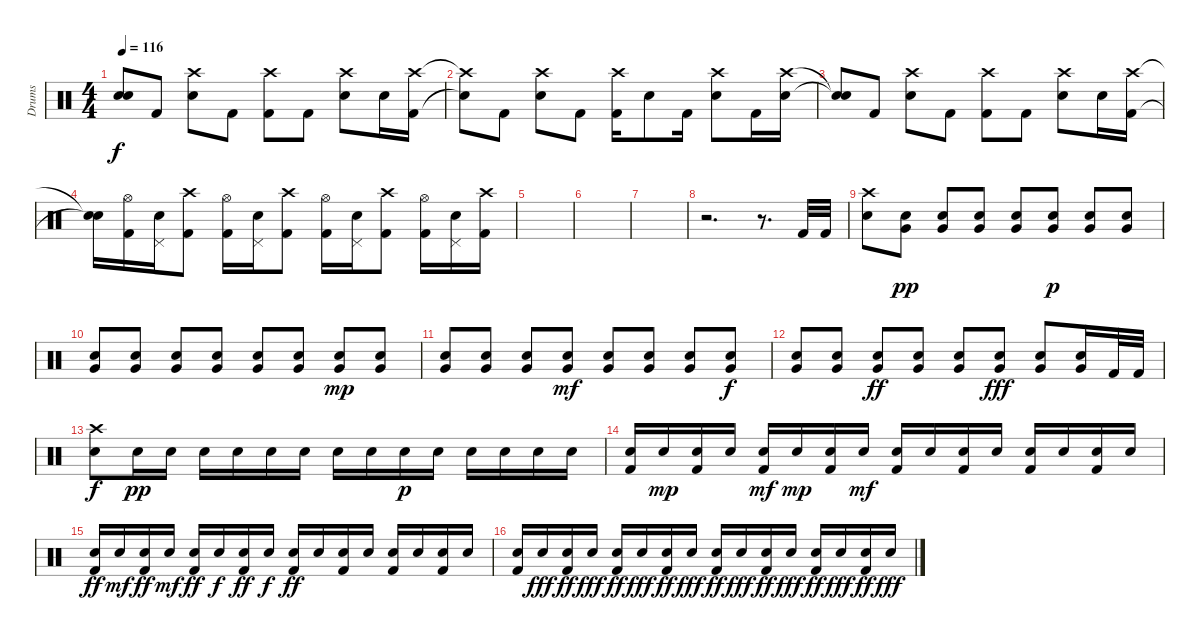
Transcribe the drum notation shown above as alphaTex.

\track ("Drums" "Drums") {instrument percussion}
\staff {score}
\articulation defaults
\ts (4 4)
\tempo 116
\clef neutral
\ks c
("Snare (hit)"{t} "Snare (hit)"{t}).8{dy f} "Kick (hit) 2".8 ("Crash high (hit)" "Electric Snare (hit)").8 "Kick (hit) 2".8 ("Crash high (hit)" "Kick (hit) 2").8 "Kick (hit) 2".8 ("Crash high (hit)" "Electric Snare (hit)").8 "Electric Snare (hit)".16 ("Crash high (hit)" "Kick (hit) 2").16 |
("Crash high (hit)"{t} "Snare (hit)"{t}).8 "Kick (hit) 2".8 ("Crash high (hit)" "Electric Snare (hit)").8 "Kick (hit) 2".8 ("Crash high (hit)" "Kick (hit) 2").16 "Electric Snare (hit)".8 "Kick (hit) 2".16 ("Crash high (hit)" "Electric Snare (hit)").8 "Kick (hit) 2".16 ("Crash high (hit)" "Electric Snare (hit)").16 |
("Snare (hit)"{t} "Snare (hit)"{t}).8 "Kick (hit) 2".8 ("Crash high (hit)" "Electric Snare (hit)").8 "Kick (hit) 2".8 ("Crash high (hit)" "Kick (hit) 2").8 "Kick (hit) 2".8 ("Crash high (hit)" "Electric Snare (hit)").8 "Electric Snare (hit)".16 ("Crash high (hit)" "Kick (hit) 2").16 |
("Snare (hit)"{t} "Snare (hit)"{t}).16 ("Hi-Hat (open)" "Kick (hit) 2").16 ("Pedal Hi-Hat (hit)" "Electric Snare (hit)").16 ("Crash high (hit)" "Kick (hit) 2").8 ("Hi-Hat (open)" "Kick (hit) 2").16 ("Pedal Hi-Hat (hit)" "Electric Snare (hit)").16 ("Crash high (hit)" "Kick (hit) 2").8 ("Hi-Hat (open)" "Kick (hit) 2").16 ("Pedal Hi-Hat (hit)" "Electric Snare (hit)").16 ("Crash high (hit)" "Kick (hit) 2").8 ("Hi-Hat (open)" "Kick (hit) 2").16 ("Pedal Hi-Hat (hit)" "Electric Snare (hit)").16 ("Crash high (hit)" "Kick (hit) 2").16 |
|
|
|
r.2{d} r.8{d} "Kick (hit) 2".32 "Kick (hit) 2".32 |
("Crash high (hit)" "Electric Snare (hit)").8 ("Very Low Tom (hit)" "Electric Snare (hit)").8{dy pp} ("Very Low Tom (hit)" "Electric Snare (hit)").8 ("Very Low Tom (hit)" "Electric Snare (hit)").8 ("Very Low Tom (hit)" "Electric Snare (hit)").8 ("Very Low Tom (hit)" "Electric Snare (hit)").8{dy p} ("Very Low Tom (hit)" "Electric Snare (hit)").8 ("Very Low Tom (hit)" "Electric Snare (hit)").8 |
("Very Low Tom (hit)" "Electric Snare (hit)").8 ("Very Low Tom (hit)" "Electric Snare (hit)").8 ("Very Low Tom (hit)" "Electric Snare (hit)").8 ("Very Low Tom (hit)" "Electric Snare (hit)").8 ("Very Low Tom (hit)" "Electric Snare (hit)").8 ("Very Low Tom (hit)" "Electric Snare (hit)").8 ("Very Low Tom (hit)" "Electric Snare (hit)").8{dy mp} ("Very Low Tom (hit)" "Electric Snare (hit)").8 |
("Very Low Tom (hit)" "Electric Snare (hit)").8 ("Very Low Tom (hit)" "Electric Snare (hit)").8 ("Very Low Tom (hit)" "Electric Snare (hit)").8 ("Very Low Tom (hit)" "Electric Snare (hit)").8{dy mf} ("Very Low Tom (hit)" "Electric Snare (hit)").8 ("Very Low Tom (hit)" "Electric Snare (hit)").8 ("Very Low Tom (hit)" "Electric Snare (hit)").8 ("Very Low Tom (hit)" "Electric Snare (hit)").8{dy f} |
("Very Low Tom (hit)" "Electric Snare (hit)").8 ("Very Low Tom (hit)" "Electric Snare (hit)").8 ("Very Low Tom (hit)" "Electric Snare (hit)").8{dy ff} ("Very Low Tom (hit)" "Electric Snare (hit)").8 ("Very Low Tom (hit)" "Electric Snare (hit)").8 ("Very Low Tom (hit)" "Electric Snare (hit)").8{dy fff} ("Very Low Tom (hit)" "Electric Snare (hit)").8 ("Very Low Tom (hit)" "Electric Snare (hit)").16 "Kick (hit) 2".32 "Kick (hit) 2".32 |
("Crash high (hit)" "Electric Snare (hit)").8{dy f} "Electric Snare (hit)".16{dy pp} "Electric Snare (hit)".16 "Electric Snare (hit)".16 "Electric Snare (hit)".16 "Electric Snare (hit)".16 "Electric Snare (hit)".16 "Electric Snare (hit)".16 "Electric Snare (hit)".16 "Electric Snare (hit)".16{dy p} "Electric Snare (hit)".16 "Electric Snare (hit)".16 "Electric Snare (hit)".16 "Electric Snare (hit)".16 "Electric Snare (hit)".16 |
("Electric Snare (hit)" "Kick (hit) 2").16 "Electric Snare (hit)".16{dy mp} ("Electric Snare (hit)" "Kick (hit) 2").16 "Electric Snare (hit)".16 ("Electric Snare (hit)" "Kick (hit) 2").16{dy mf} "Electric Snare (hit)".16{dy mp} ("Electric Snare (hit)" "Kick (hit) 2").16 "Electric Snare (hit)".16{dy mf} ("Electric Snare (hit)" "Kick (hit) 2").16 "Electric Snare (hit)".16 ("Electric Snare (hit)" "Kick (hit) 2").16 "Electric Snare (hit)".16 ("Electric Snare (hit)" "Kick (hit) 2").16 "Electric Snare (hit)".16 ("Electric Snare (hit)" "Kick (hit) 2").16 "Electric Snare (hit)".16 |
("Electric Snare (hit)" "Kick (hit) 2").16{dy ff} "Electric Snare (hit)".16{dy mf} ("Electric Snare (hit)" "Kick (hit) 2").16{dy ff} "Electric Snare (hit)".16{dy mf} ("Electric Snare (hit)" "Kick (hit) 2").16{dy ff} "Electric Snare (hit)".16{dy f} ("Electric Snare (hit)" "Kick (hit) 2").16{dy ff} "Electric Snare (hit)".16{dy f} ("Electric Snare (hit)" "Kick (hit) 2").16{dy ff} "Electric Snare (hit)".16 ("Electric Snare (hit)" "Kick (hit) 2").16 "Electric Snare (hit)".16 ("Electric Snare (hit)" "Kick (hit) 2").16 "Electric Snare (hit)".16 ("Electric Snare (hit)" "Kick (hit) 2").16 "Electric Snare (hit)".16 |
("Electric Snare (hit)" "Kick (hit) 2").16 "Electric Snare (hit)".16{dy fff} ("Electric Snare (hit)" "Kick (hit) 2").16{dy ff} "Electric Snare (hit)".16{dy fff} ("Electric Snare (hit)" "Kick (hit) 2").16{dy ff} "Electric Snare (hit)".16{dy fff} ("Electric Snare (hit)" "Kick (hit) 2").16{dy ff} "Electric Snare (hit)".16{dy fff} ("Electric Snare (hit)" "Kick (hit) 2").16{dy ff} "Electric Snare (hit)".16{dy fff} ("Electric Snare (hit)" "Kick (hit) 2").16{dy ff} "Electric Snare (hit)".16{dy fff} ("Electric Snare (hit)" "Kick (hit) 2").16{dy ff} "Electric Snare (hit)".16{dy fff} ("Electric Snare (hit)" "Kick (hit) 2").16{dy ff} "Electric Snare (hit)".16{dy fff}
